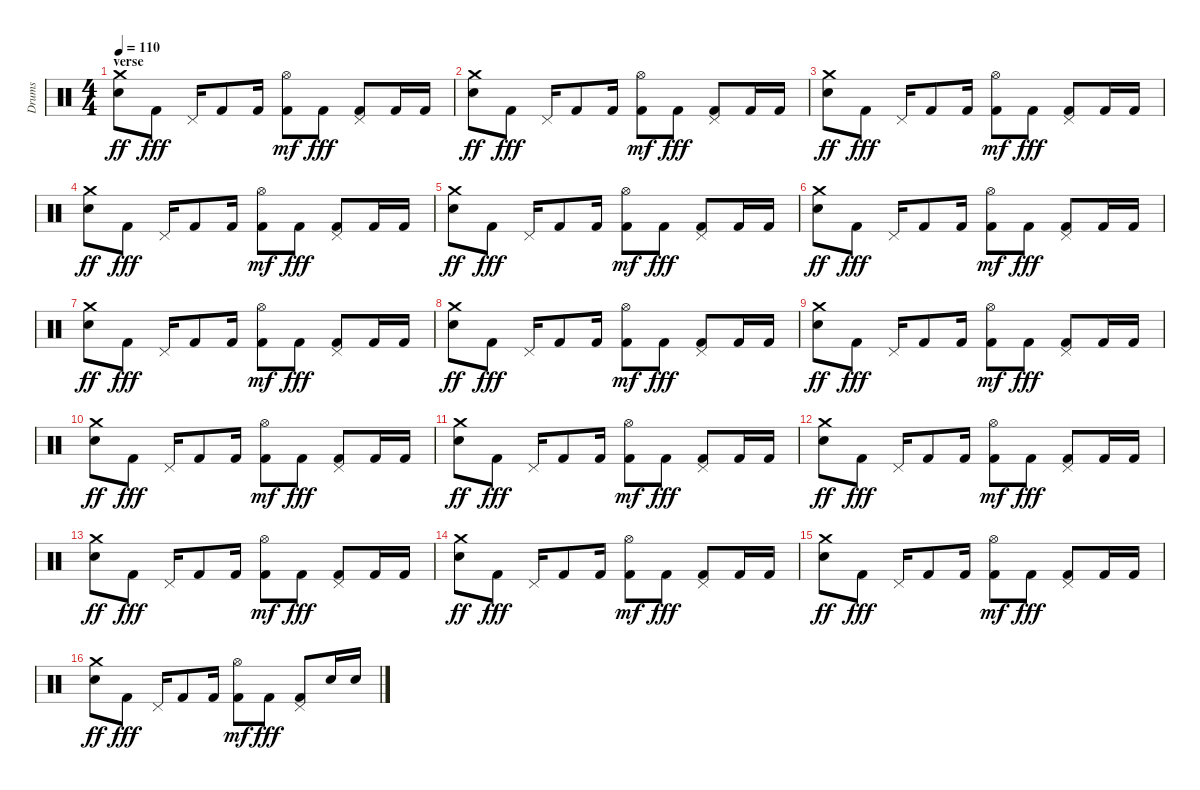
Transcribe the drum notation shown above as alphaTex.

\track ("Drums" "Drums") {instrument percussion}
\staff {score}
\articulation defaults
\ts (4 4)
\section ("" "verse")
\tempo 110
\clef neutral
\ks c
("Electric Snare (hit)" "Crash medium (hit)").8{dy ff} "Kick (hit) 2".8{dy fff} "Pedal Hi-Hat (hit)".16 "Kick (hit) 2".8 "Kick (hit) 2".16 ("Kick (hit) 2" "Hi-Hat (open)").8{dy mf} "Kick (hit) 2".8{dy fff} ("Kick (hit) 2" "Pedal Hi-Hat (hit)").8 "Kick (hit) 2".16 "Kick (hit) 2".16 |
("Electric Snare (hit)" "Crash medium (hit)").8{dy ff} "Kick (hit) 2".8{dy fff} "Pedal Hi-Hat (hit)".16 "Kick (hit) 2".8 "Kick (hit) 2".16 ("Kick (hit) 2" "Hi-Hat (open)").8{dy mf} "Kick (hit) 2".8{dy fff} ("Kick (hit) 2" "Pedal Hi-Hat (hit)").8 "Kick (hit) 2".16 "Kick (hit) 2".16 |
("Electric Snare (hit)" "Crash medium (hit)").8{dy ff} "Kick (hit) 2".8{dy fff} "Pedal Hi-Hat (hit)".16 "Kick (hit) 2".8 "Kick (hit) 2".16 ("Kick (hit) 2" "Hi-Hat (open)").8{dy mf} "Kick (hit) 2".8{dy fff} ("Kick (hit) 2" "Pedal Hi-Hat (hit)").8 "Kick (hit) 2".16 "Kick (hit) 2".16 |
("Electric Snare (hit)" "Crash medium (hit)").8{dy ff} "Kick (hit) 2".8{dy fff} "Pedal Hi-Hat (hit)".16 "Kick (hit) 2".8 "Kick (hit) 2".16 ("Kick (hit) 2" "Hi-Hat (open)").8{dy mf} "Kick (hit) 2".8{dy fff} ("Kick (hit) 2" "Pedal Hi-Hat (hit)").8 "Kick (hit) 2".16 "Kick (hit) 2".16 |
("Electric Snare (hit)" "Crash medium (hit)").8{dy ff} "Kick (hit) 2".8{dy fff} "Pedal Hi-Hat (hit)".16 "Kick (hit) 2".8 "Kick (hit) 2".16 ("Kick (hit) 2" "Hi-Hat (open)").8{dy mf} "Kick (hit) 2".8{dy fff} ("Kick (hit) 2" "Pedal Hi-Hat (hit)").8 "Kick (hit) 2".16 "Kick (hit) 2".16 |
("Electric Snare (hit)" "Crash medium (hit)").8{dy ff} "Kick (hit) 2".8{dy fff} "Pedal Hi-Hat (hit)".16 "Kick (hit) 2".8 "Kick (hit) 2".16 ("Kick (hit) 2" "Hi-Hat (open)").8{dy mf} "Kick (hit) 2".8{dy fff} ("Kick (hit) 2" "Pedal Hi-Hat (hit)").8 "Kick (hit) 2".16 "Kick (hit) 2".16 |
("Electric Snare (hit)" "Crash medium (hit)").8{dy ff} "Kick (hit) 2".8{dy fff} "Pedal Hi-Hat (hit)".16 "Kick (hit) 2".8 "Kick (hit) 2".16 ("Kick (hit) 2" "Hi-Hat (open)").8{dy mf} "Kick (hit) 2".8{dy fff} ("Kick (hit) 2" "Pedal Hi-Hat (hit)").8 "Kick (hit) 2".16 "Kick (hit) 2".16 |
("Electric Snare (hit)" "Crash medium (hit)").8{dy ff} "Kick (hit) 2".8{dy fff} "Pedal Hi-Hat (hit)".16 "Kick (hit) 2".8 "Kick (hit) 2".16 ("Kick (hit) 2" "Hi-Hat (open)").8{dy mf} "Kick (hit) 2".8{dy fff} ("Kick (hit) 2" "Pedal Hi-Hat (hit)").8 "Kick (hit) 2".16 "Kick (hit) 2".16 |
("Electric Snare (hit)" "Crash medium (hit)").8{dy ff} "Kick (hit) 2".8{dy fff} "Pedal Hi-Hat (hit)".16 "Kick (hit) 2".8 "Kick (hit) 2".16 ("Kick (hit) 2" "Hi-Hat (open)").8{dy mf} "Kick (hit) 2".8{dy fff} ("Kick (hit) 2" "Pedal Hi-Hat (hit)").8 "Kick (hit) 2".16 "Kick (hit) 2".16 |
("Electric Snare (hit)" "Crash medium (hit)").8{dy ff} "Kick (hit) 2".8{dy fff} "Pedal Hi-Hat (hit)".16 "Kick (hit) 2".8 "Kick (hit) 2".16 ("Kick (hit) 2" "Hi-Hat (open)").8{dy mf} "Kick (hit) 2".8{dy fff} ("Kick (hit) 2" "Pedal Hi-Hat (hit)").8 "Kick (hit) 2".16 "Kick (hit) 2".16 |
("Electric Snare (hit)" "Crash medium (hit)").8{dy ff} "Kick (hit) 2".8{dy fff} "Pedal Hi-Hat (hit)".16 "Kick (hit) 2".8 "Kick (hit) 2".16 ("Kick (hit) 2" "Hi-Hat (open)").8{dy mf} "Kick (hit) 2".8{dy fff} ("Kick (hit) 2" "Pedal Hi-Hat (hit)").8 "Kick (hit) 2".16 "Kick (hit) 2".16 |
("Electric Snare (hit)" "Crash medium (hit)").8{dy ff} "Kick (hit) 2".8{dy fff} "Pedal Hi-Hat (hit)".16 "Kick (hit) 2".8 "Kick (hit) 2".16 ("Kick (hit) 2" "Hi-Hat (open)").8{dy mf} "Kick (hit) 2".8{dy fff} ("Kick (hit) 2" "Pedal Hi-Hat (hit)").8 "Kick (hit) 2".16 "Kick (hit) 2".16 |
("Electric Snare (hit)" "Crash medium (hit)").8{dy ff} "Kick (hit) 2".8{dy fff} "Pedal Hi-Hat (hit)".16 "Kick (hit) 2".8 "Kick (hit) 2".16 ("Kick (hit) 2" "Hi-Hat (open)").8{dy mf} "Kick (hit) 2".8{dy fff} ("Kick (hit) 2" "Pedal Hi-Hat (hit)").8 "Kick (hit) 2".16 "Kick (hit) 2".16 |
("Electric Snare (hit)" "Crash medium (hit)").8{dy ff} "Kick (hit) 2".8{dy fff} "Pedal Hi-Hat (hit)".16 "Kick (hit) 2".8 "Kick (hit) 2".16 ("Kick (hit) 2" "Hi-Hat (open)").8{dy mf} "Kick (hit) 2".8{dy fff} ("Kick (hit) 2" "Pedal Hi-Hat (hit)").8 "Kick (hit) 2".16 "Kick (hit) 2".16 |
("Electric Snare (hit)" "Crash medium (hit)").8{dy ff} "Kick (hit) 2".8{dy fff} "Pedal Hi-Hat (hit)".16 "Kick (hit) 2".8 "Kick (hit) 2".16 ("Kick (hit) 2" "Hi-Hat (open)").8{dy mf} "Kick (hit) 2".8{dy fff} ("Kick (hit) 2" "Pedal Hi-Hat (hit)").8 "Kick (hit) 2".16 "Kick (hit) 2".16 |
("Electric Snare (hit)" "Crash medium (hit)").8{dy ff} "Kick (hit) 2".8{dy fff} "Pedal Hi-Hat (hit)".16 "Kick (hit) 2".8 "Kick (hit) 2".16 ("Kick (hit) 2" "Hi-Hat (open)").8{dy mf} "Kick (hit) 2".8{dy fff} ("Kick (hit) 2" "Pedal Hi-Hat (hit)").8 "Electric Snare (hit)".16 "Electric Snare (hit)".16
